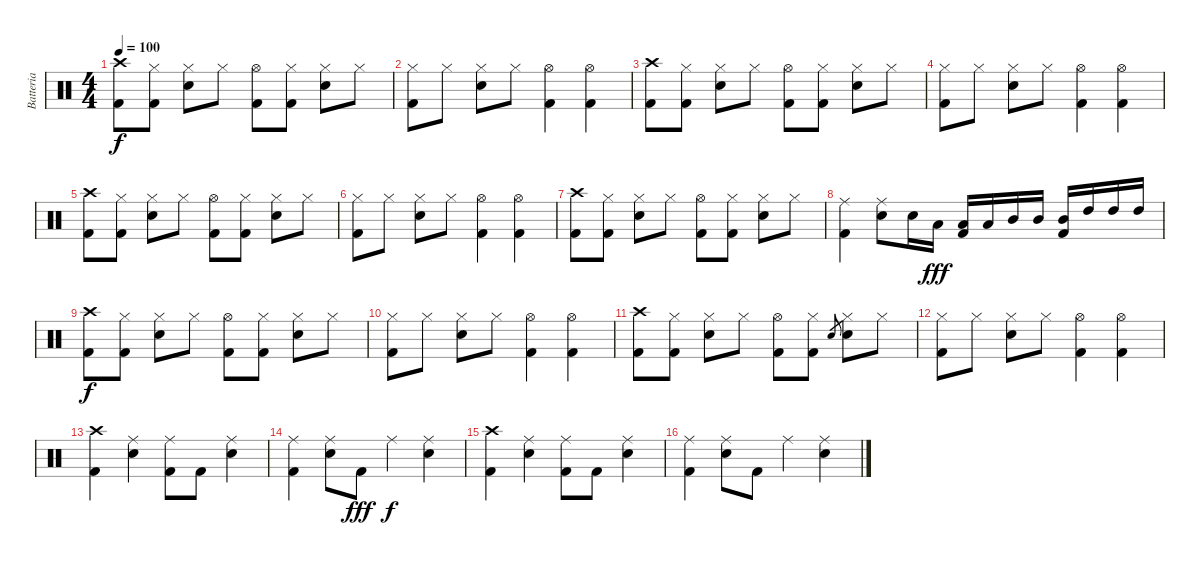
\track ("Batteria" "Batteria") {instrument percussion}
\staff {score}
\articulation defaults
\ts (4 4)
\tempo 100
\clef neutral
\ks c
("Crash high (hit)" "Kick (hit) 2").8{dy f} ("Hi-Hat (closed)" "Kick (hit) 2").8 ("Hi-Hat (closed)" "Electric Snare (hit)").8 "Hi-Hat (closed)".8 ("Hi-Hat (open)" "Kick (hit) 2").8 ("Hi-Hat (closed)" "Kick (hit) 2").8 ("Hi-Hat (closed)" "Electric Snare (hit)").8 "Hi-Hat (closed)".8 |
("Hi-Hat (closed)" "Kick (hit) 2").8 "Hi-Hat (closed)".8 ("Hi-Hat (closed)" "Electric Snare (hit)").8 "Hi-Hat (closed)".8 ("Hi-Hat (open)" "Kick (hit) 2").4 ("Hi-Hat (open)" "Kick (hit) 2").4 |
("Crash high (hit)" "Kick (hit) 2").8 ("Hi-Hat (closed)" "Kick (hit) 2").8 ("Hi-Hat (closed)" "Electric Snare (hit)").8 "Hi-Hat (closed)".8 ("Hi-Hat (open)" "Kick (hit) 2").8 ("Hi-Hat (closed)" "Kick (hit) 2").8 ("Hi-Hat (closed)" "Electric Snare (hit)").8 "Hi-Hat (closed)".8 |
("Hi-Hat (closed)" "Kick (hit) 2").8 "Hi-Hat (closed)".8 ("Hi-Hat (closed)" "Electric Snare (hit)").8 "Hi-Hat (closed)".8 ("Hi-Hat (open)" "Kick (hit) 2").4 ("Hi-Hat (open)" "Kick (hit) 2").4 |
("Crash high (hit)" "Kick (hit) 2").8 ("Hi-Hat (closed)" "Kick (hit) 2").8 ("Hi-Hat (closed)" "Electric Snare (hit)").8 "Hi-Hat (closed)".8 ("Hi-Hat (open)" "Kick (hit) 2").8 ("Hi-Hat (closed)" "Kick (hit) 2").8 ("Hi-Hat (closed)" "Electric Snare (hit)").8 "Hi-Hat (closed)".8 |
("Hi-Hat (closed)" "Kick (hit) 2").8 "Hi-Hat (closed)".8 ("Hi-Hat (closed)" "Electric Snare (hit)").8 "Hi-Hat (closed)".8 ("Hi-Hat (open)" "Kick (hit) 2").4 ("Hi-Hat (open)" "Kick (hit) 2").4 |
("Crash high (hit)" "Kick (hit) 2").8 ("Hi-Hat (closed)" "Kick (hit) 2").8 ("Hi-Hat (closed)" "Electric Snare (hit)").8 "Hi-Hat (closed)".8 ("Hi-Hat (open)" "Kick (hit) 2").8 ("Hi-Hat (closed)" "Kick (hit) 2").8 ("Hi-Hat (closed)" "Electric Snare (hit)").8 "Hi-Hat (closed)".8 |
("Ride (middle)" "Kick (hit) 2").4 ("Ride (middle)" "Electric Snare (hit)").8 "Electric Snare (hit)".16 "Low Tom (hit)".16{dy fff} ("Low Tom (hit)" "Kick (hit) 2").16 "Low Tom (hit)".16 "Mid Tom (hit)".16 "Mid Tom (hit)".16 ("Mid Tom (hit)" "Kick (hit) 2").16 "High Tom (hit)".16 "High Tom (hit)".16 "High Tom (hit)".16 |
("Crash high (hit)" "Kick (hit) 2").8{dy f} ("Hi-Hat (closed)" "Kick (hit) 2").8 ("Hi-Hat (closed)" "Electric Snare (hit)").8 "Hi-Hat (closed)".8 ("Hi-Hat (open)" "Kick (hit) 2").8 ("Hi-Hat (closed)" "Kick (hit) 2").8 ("Hi-Hat (closed)" "Electric Snare (hit)").8 "Hi-Hat (closed)".8 |
("Hi-Hat (closed)" "Kick (hit) 2").8 "Hi-Hat (closed)".8 ("Hi-Hat (closed)" "Electric Snare (hit)").8 "Hi-Hat (closed)".8 ("Hi-Hat (open)" "Kick (hit) 2").4 ("Hi-Hat (open)" "Kick (hit) 2").4 |
("Crash high (hit)" "Kick (hit) 2").8 ("Hi-Hat (closed)" "Kick (hit) 2").8 ("Hi-Hat (closed)" "Electric Snare (hit)").8 "Hi-Hat (closed)".8 ("Hi-Hat (open)" "Kick (hit) 2").8 ("Hi-Hat (closed)" "Kick (hit) 2").8 "Electric Snare (hit)".8{gr} ("Hi-Hat (closed)" "Electric Snare (hit)").8 "Hi-Hat (closed)".8 |
("Hi-Hat (closed)" "Kick (hit) 2").8 "Hi-Hat (closed)".8 ("Hi-Hat (closed)" "Electric Snare (hit)").8 "Hi-Hat (closed)".8 ("Hi-Hat (open)" "Kick (hit) 2").4 ("Hi-Hat (open)" "Kick (hit) 2").4 |
("Crash high (hit)" "Kick (hit) 2").4 ("Ride (middle)" "Electric Snare (hit)").4 ("Ride (middle)" "Kick (hit) 2").8 "Kick (hit) 2".8 ("Ride (middle)" "Electric Snare (hit)").4 |
("Ride (middle)" "Kick (hit) 2").4 ("Ride (middle)" "Electric Snare (hit)").8 "Kick (hit) 2".8{dy fff} "Ride (middle)".4{dy f} ("Ride (middle)" "Electric Snare (hit)").4 |
("Crash high (hit)" "Kick (hit) 2").4 ("Ride (middle)" "Electric Snare (hit)").4 ("Ride (middle)" "Kick (hit) 2").8 "Kick (hit) 2".8 ("Ride (middle)" "Electric Snare (hit)").4 |
("Ride (middle)" "Kick (hit) 2").4 ("Ride (middle)" "Electric Snare (hit)").8 "Kick (hit) 2".8 "Ride (middle)".4 ("Ride (middle)" "Electric Snare (hit)").4
